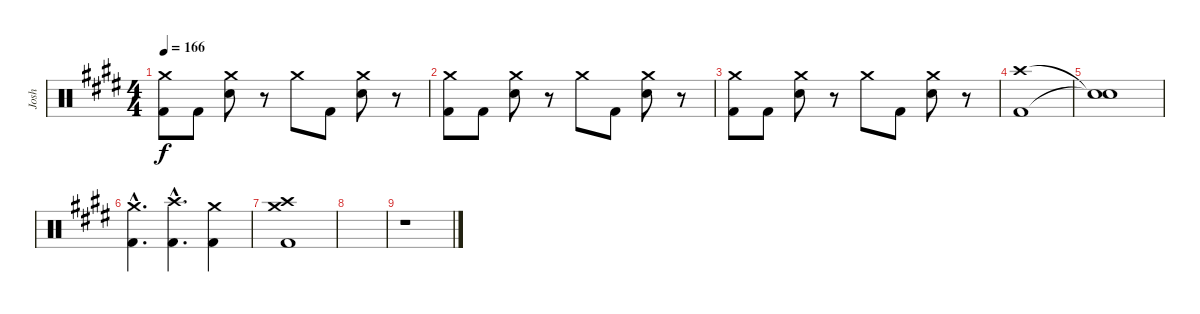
\track ("Josh" "Josh") {instrument percussion}
\staff {score}
\articulation defaults
\ts (4 4)
\tempo 166
\clef neutral
\ks e
("Crash medium (hit)" "Kick (hit) 2").8{dy f} "Kick (hit) 2".8 ("Crash medium (hit)" "Electric Snare (hit)").8 r.8 "Crash medium (hit)".8 "Kick (hit) 2".8 ("Crash medium (hit)" "Electric Snare (hit)").8 r.8 |
("Crash medium (hit)" "Kick (hit) 2").8 "Kick (hit) 2".8 ("Crash medium (hit)" "Electric Snare (hit)").8 r.8 "Crash medium (hit)".8 "Kick (hit) 2".8 ("Crash medium (hit)" "Electric Snare (hit)").8 r.8 |
("Crash medium (hit)" "Kick (hit) 2").8 "Kick (hit) 2".8 ("Crash medium (hit)" "Electric Snare (hit)").8 r.8 "Crash medium (hit)".8 "Kick (hit) 2".8 ("Crash medium (hit)" "Electric Snare (hit)").8 r.8 |
("Crash high (hit)" "Kick (hit) 2").1 |
("Snare (hit)"{t} "Snare (hit)"{t}).1 |
("Crash medium (hit)"{hac} "Kick (hit) 2"{hac}).4{d} ("Crash high (hit)"{hac} "Kick (hit) 2"{hac}).4{d} ("Crash medium (hit)" "Kick (hit) 2").4 |
("Crash high (hit)" "Crash medium (hit)" "Kick (hit) 2").1 |
|
r.1
